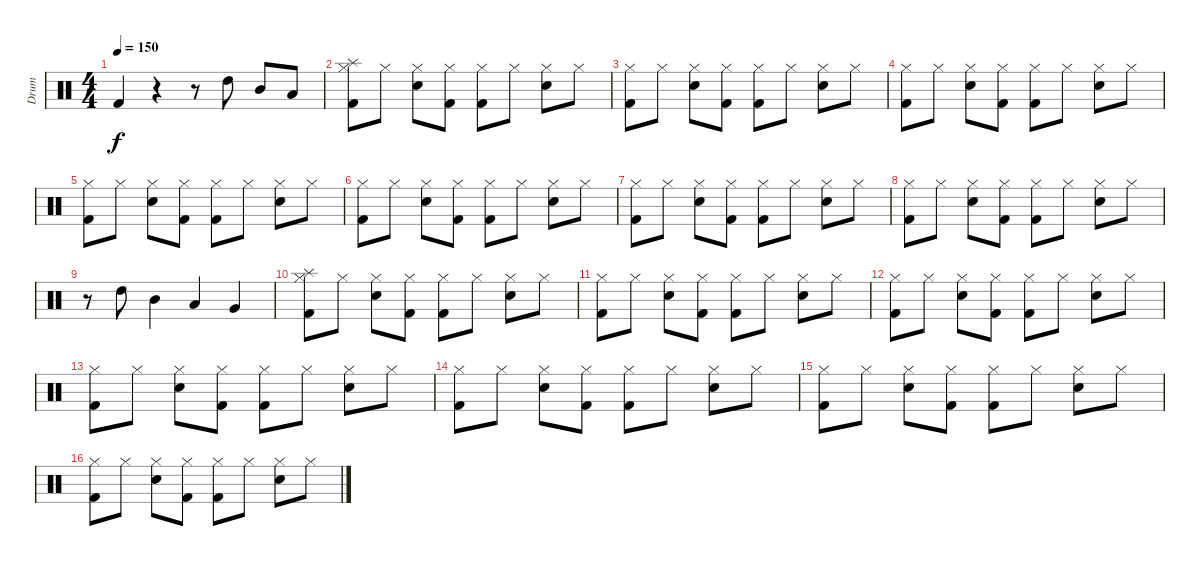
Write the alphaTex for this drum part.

\track ("Drum" "Drum") {instrument percussion}
\staff {score}
\articulation defaults
\ts (4 4)
\tempo 150
\clef neutral
\ks c "Kick (hit) 2".4{dy f}
r.4 r.8 "High Tom (hit)".8 "Mid Tom (hit)".8 "Low Tom (hit)".8 |
("Kick (hit) 2" "Hi-Hat (closed)" "Splash (hit)").8 "Hi-Hat (closed)".8 ("Hi-Hat (closed)" "Electric Snare (hit)").8 ("Kick (hit) 2" "Hi-Hat (closed)").8 ("Kick (hit) 2" "Hi-Hat (closed)").8 "Hi-Hat (closed)".8 ("Hi-Hat (closed)" "Electric Snare (hit)").8 "Hi-Hat (closed)".8 |
("Kick (hit) 2" "Hi-Hat (closed)").8 "Hi-Hat (closed)".8 ("Hi-Hat (closed)" "Electric Snare (hit)").8 ("Kick (hit) 2" "Hi-Hat (closed)").8 ("Kick (hit) 2" "Hi-Hat (closed)").8 "Hi-Hat (closed)".8 ("Hi-Hat (closed)" "Electric Snare (hit)").8 "Hi-Hat (closed)".8 |
("Kick (hit) 2" "Hi-Hat (closed)").8 "Hi-Hat (closed)".8 ("Hi-Hat (closed)" "Electric Snare (hit)").8 ("Kick (hit) 2" "Hi-Hat (closed)").8 ("Kick (hit) 2" "Hi-Hat (closed)").8 "Hi-Hat (closed)".8 ("Hi-Hat (closed)" "Electric Snare (hit)").8 "Hi-Hat (closed)".8 |
("Kick (hit) 2" "Hi-Hat (closed)").8 "Hi-Hat (closed)".8 ("Hi-Hat (closed)" "Electric Snare (hit)").8 ("Kick (hit) 2" "Hi-Hat (closed)").8 ("Kick (hit) 2" "Hi-Hat (closed)").8 "Hi-Hat (closed)".8 ("Hi-Hat (closed)" "Electric Snare (hit)").8 "Hi-Hat (closed)".8 |
("Kick (hit) 2" "Hi-Hat (closed)").8 "Hi-Hat (closed)".8 ("Hi-Hat (closed)" "Electric Snare (hit)").8 ("Kick (hit) 2" "Hi-Hat (closed)").8 ("Kick (hit) 2" "Hi-Hat (closed)").8 "Hi-Hat (closed)".8 ("Hi-Hat (closed)" "Electric Snare (hit)").8 "Hi-Hat (closed)".8 |
("Kick (hit) 2" "Hi-Hat (closed)").8 "Hi-Hat (closed)".8 ("Hi-Hat (closed)" "Electric Snare (hit)").8 ("Kick (hit) 2" "Hi-Hat (closed)").8 ("Kick (hit) 2" "Hi-Hat (closed)").8 "Hi-Hat (closed)".8 ("Hi-Hat (closed)" "Electric Snare (hit)").8 "Hi-Hat (closed)".8 |
("Kick (hit) 2" "Hi-Hat (closed)").8 "Hi-Hat (closed)".8 ("Hi-Hat (closed)" "Electric Snare (hit)").8 ("Kick (hit) 2" "Hi-Hat (closed)").8 ("Kick (hit) 2" "Hi-Hat (closed)").8 "Hi-Hat (closed)".8 ("Hi-Hat (closed)" "Electric Snare (hit)").8 "Hi-Hat (closed)".8 |
r.8 "High Tom (hit)".8 "Mid Tom (hit)".4 "Low Tom (hit)".4 "Very Low Tom (hit)".4 |
("Kick (hit) 2" "Hi-Hat (closed)" "Splash (hit)").8 "Hi-Hat (closed)".8 ("Hi-Hat (closed)" "Electric Snare (hit)").8 ("Kick (hit) 2" "Hi-Hat (closed)").8 ("Kick (hit) 2" "Hi-Hat (closed)").8 "Hi-Hat (closed)".8 ("Hi-Hat (closed)" "Electric Snare (hit)").8 "Hi-Hat (closed)".8 |
("Kick (hit) 2" "Hi-Hat (closed)").8 "Hi-Hat (closed)".8 ("Hi-Hat (closed)" "Electric Snare (hit)").8 ("Kick (hit) 2" "Hi-Hat (closed)").8 ("Kick (hit) 2" "Hi-Hat (closed)").8 "Hi-Hat (closed)".8 ("Hi-Hat (closed)" "Electric Snare (hit)").8 "Hi-Hat (closed)".8 |
("Kick (hit) 2" "Hi-Hat (closed)").8 "Hi-Hat (closed)".8 ("Hi-Hat (closed)" "Electric Snare (hit)").8 ("Kick (hit) 2" "Hi-Hat (closed)").8 ("Kick (hit) 2" "Hi-Hat (closed)").8 "Hi-Hat (closed)".8 ("Hi-Hat (closed)" "Electric Snare (hit)").8 "Hi-Hat (closed)".8 |
("Kick (hit) 2" "Hi-Hat (closed)").8 "Hi-Hat (closed)".8 ("Hi-Hat (closed)" "Electric Snare (hit)").8 ("Kick (hit) 2" "Hi-Hat (closed)").8 ("Kick (hit) 2" "Hi-Hat (closed)").8 "Hi-Hat (closed)".8 ("Hi-Hat (closed)" "Electric Snare (hit)").8 "Hi-Hat (closed)".8 |
("Kick (hit) 2" "Hi-Hat (closed)").8 "Hi-Hat (closed)".8 ("Hi-Hat (closed)" "Electric Snare (hit)").8 ("Kick (hit) 2" "Hi-Hat (closed)").8 ("Kick (hit) 2" "Hi-Hat (closed)").8 "Hi-Hat (closed)".8 ("Hi-Hat (closed)" "Electric Snare (hit)").8 "Hi-Hat (closed)".8 |
("Kick (hit) 2" "Hi-Hat (closed)").8 "Hi-Hat (closed)".8 ("Hi-Hat (closed)" "Electric Snare (hit)").8 ("Kick (hit) 2" "Hi-Hat (closed)").8 ("Kick (hit) 2" "Hi-Hat (closed)").8 "Hi-Hat (closed)".8 ("Hi-Hat (closed)" "Electric Snare (hit)").8 "Hi-Hat (closed)".8 |
("Kick (hit) 2" "Hi-Hat (closed)").8 "Hi-Hat (closed)".8 ("Hi-Hat (closed)" "Electric Snare (hit)").8 ("Kick (hit) 2" "Hi-Hat (closed)").8 ("Kick (hit) 2" "Hi-Hat (closed)").8 "Hi-Hat (closed)".8 ("Hi-Hat (closed)" "Electric Snare (hit)").8 "Hi-Hat (closed)".8
